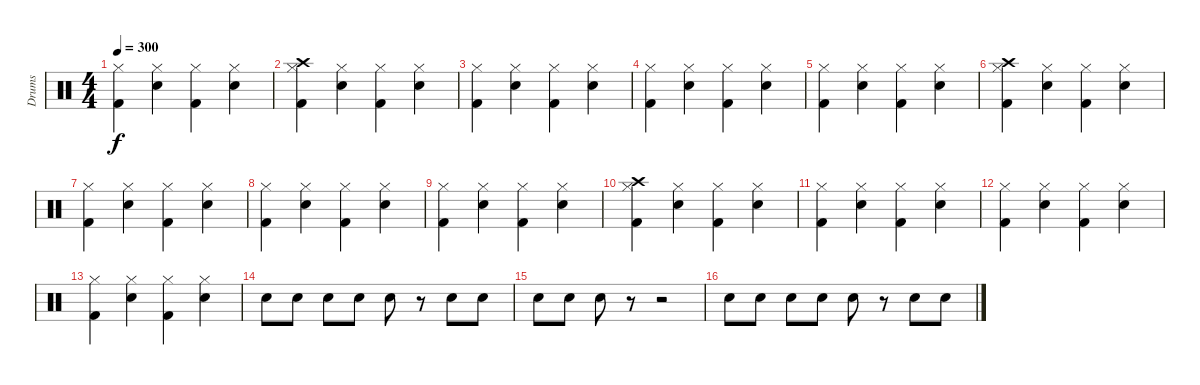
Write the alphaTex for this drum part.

\track ("Drums" "Drums") {instrument percussion}
\staff {score}
\articulation defaults
\ts (4 4)
\tempo 300
\clef neutral
\ks c
("Hi-Hat (closed)" "Kick (hit) 2").4{dy f} ("Hi-Hat (closed)" "Snare (hit) 2").4 ("Hi-Hat (closed)" "Kick (hit) 2").4 ("Hi-Hat (closed)" "Snare (hit) 2").4 |
("Hi-Hat (closed)" "Kick (hit) 2" "Crash high (hit)").4 ("Hi-Hat (closed)" "Snare (hit) 2").4 ("Hi-Hat (closed)" "Kick (hit) 2").4 ("Hi-Hat (closed)" "Snare (hit) 2").4 |
("Hi-Hat (closed)" "Kick (hit) 2").4 ("Hi-Hat (closed)" "Snare (hit) 2").4 ("Hi-Hat (closed)" "Kick (hit) 2").4 ("Hi-Hat (closed)" "Snare (hit) 2").4 |
("Hi-Hat (closed)" "Kick (hit) 2").4 ("Hi-Hat (closed)" "Snare (hit) 2").4 ("Hi-Hat (closed)" "Kick (hit) 2").4 ("Hi-Hat (closed)" "Snare (hit) 2").4 |
("Hi-Hat (closed)" "Kick (hit) 2").4 ("Hi-Hat (closed)" "Snare (hit) 2").4 ("Hi-Hat (closed)" "Kick (hit) 2").4 ("Hi-Hat (closed)" "Snare (hit) 2").4 |
("Hi-Hat (closed)" "Kick (hit) 2" "Crash high (hit)").4 ("Hi-Hat (closed)" "Snare (hit) 2").4 ("Hi-Hat (closed)" "Kick (hit) 2").4 ("Hi-Hat (closed)" "Snare (hit) 2").4 |
("Hi-Hat (closed)" "Kick (hit) 2").4 ("Hi-Hat (closed)" "Snare (hit) 2").4 ("Hi-Hat (closed)" "Kick (hit) 2").4 ("Hi-Hat (closed)" "Snare (hit) 2").4 |
("Hi-Hat (closed)" "Kick (hit) 2").4 ("Hi-Hat (closed)" "Snare (hit) 2").4 ("Hi-Hat (closed)" "Kick (hit) 2").4 ("Hi-Hat (closed)" "Snare (hit) 2").4 |
("Hi-Hat (closed)" "Kick (hit) 2").4 ("Hi-Hat (closed)" "Snare (hit) 2").4 ("Hi-Hat (closed)" "Kick (hit) 2").4 ("Hi-Hat (closed)" "Snare (hit) 2").4 |
("Hi-Hat (closed)" "Kick (hit) 2" "Crash high (hit)").4 ("Hi-Hat (closed)" "Snare (hit) 2").4 ("Hi-Hat (closed)" "Kick (hit) 2").4 ("Hi-Hat (closed)" "Snare (hit) 2").4 |
("Hi-Hat (closed)" "Kick (hit) 2").4 ("Hi-Hat (closed)" "Snare (hit) 2").4 ("Hi-Hat (closed)" "Kick (hit) 2").4 ("Hi-Hat (closed)" "Snare (hit) 2").4 |
("Hi-Hat (closed)" "Kick (hit) 2").4 ("Hi-Hat (closed)" "Snare (hit) 2").4 ("Hi-Hat (closed)" "Kick (hit) 2").4 ("Hi-Hat (closed)" "Snare (hit) 2").4 |
("Hi-Hat (closed)" "Kick (hit) 2").4 ("Hi-Hat (closed)" "Snare (hit) 2").4 ("Hi-Hat (closed)" "Kick (hit) 2").4 ("Hi-Hat (closed)" "Snare (hit) 2").4 |
"Snare (hit) 2".8 "Snare (hit) 2".8 "Snare (hit) 2".8 "Snare (hit) 2".8 "Snare (hit) 2".8 r.8 "Snare (hit) 2".8 "Snare (hit) 2".8 |
"Snare (hit) 2".8 "Snare (hit) 2".8 "Snare (hit) 2".8 r.8 r.2 |
"Snare (hit) 2".8 "Snare (hit) 2".8 "Snare (hit) 2".8 "Snare (hit) 2".8 "Snare (hit) 2".8 r.8 "Snare (hit) 2".8 "Snare (hit) 2".8
